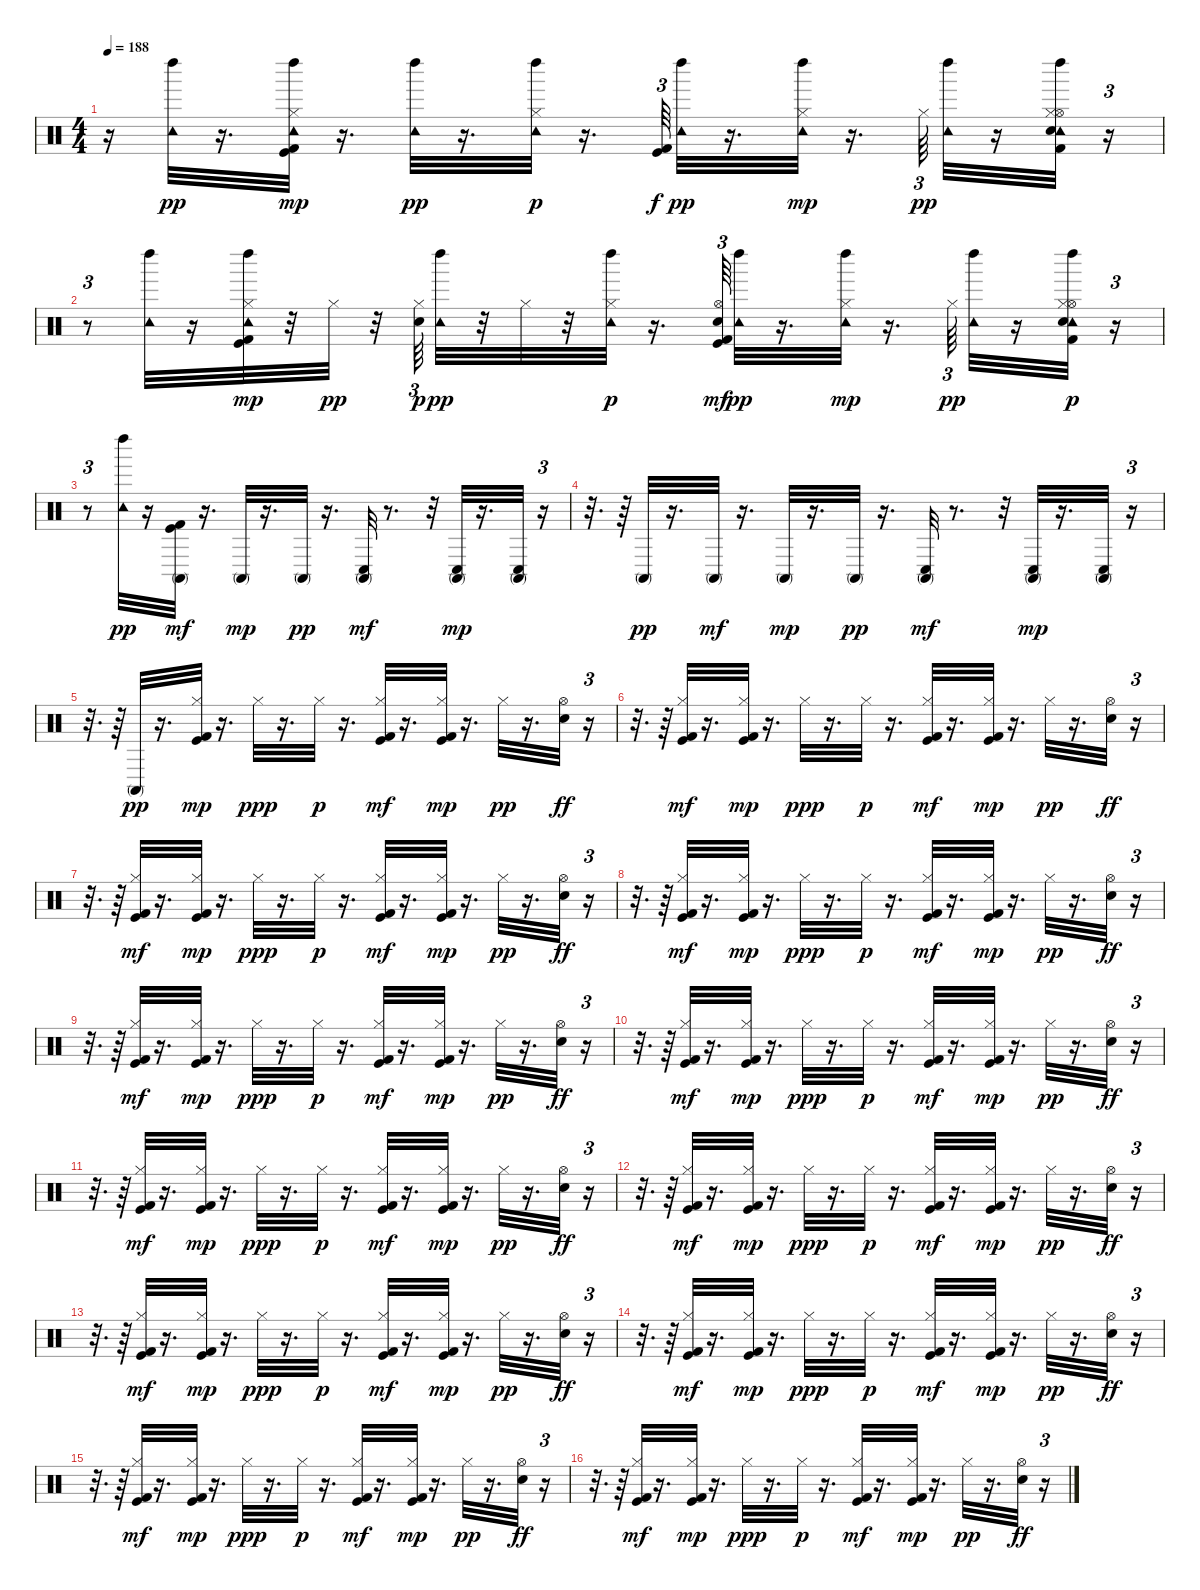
\track "" {instrument percussion}
\staff {score}
\articulation defaults
\ts (4 4)
\tempo 188
\clef neutral
\ks c
r.16{dy p} ("Tambourine (hit)" "Left Maraca (hit)").32{dy pp} r.16{d} ("Kick (hit) 2" "Hi-Hat (closed)" "Tambourine (hit)" "Left Maraca (hit)" "Kick (hit)").32{dy mp} r.16{d} ("Tambourine (hit)" "Left Maraca (hit)").32{dy pp} r.16{d} ("Hi-Hat (closed)" "Tambourine (hit)" "Left Maraca (hit)").32{dy p} r.16{d} ("Kick (hit) 2" "Kick (hit)").64{tu (3 2) dy f} ("Tambourine (hit)" "Left Maraca (hit)").32{dy pp} r.16{d} ("Hi-Hat (closed)" "Tambourine (hit)" "Left Maraca (hit)").32{dy mp} r.16{d} "Hi-Hat (closed)".64{tu (3 2) dy pp} ("Tambourine (hit)" "Left Maraca (hit)").32 r.16 ("Kick (hit) 2" "Hi-Hat (open)" "Tambourine (hit)" "Left Maraca (hit)" "Electric Snare (hit)" "Hi-Hat (closed)").32 r.16{tu (3 2)} |
r.8{tu (3 2)} ("Tambourine (hit)" "Left Maraca (hit)").32 r.16 ("Kick (hit) 2" "Hi-Hat (closed)" "Tambourine (hit)" "Left Maraca (hit)" "Kick (hit)").32{dy mp} r.32 "Hi-Hat (closed)".32{dy pp} r.32 ("Electric Snare (hit)" "Hi-Hat (closed)").64{tu (3 2) dy p} ("Tambourine (hit)" "Left Maraca (hit)").32{dy pp} r.32 "Hi-Hat (closed)".32 r.32 ("Hi-Hat (closed)" "Tambourine (hit)" "Left Maraca (hit)").32{dy p} r.16{d} ("Kick (hit) 2" "Hi-Hat (open)" "Electric Snare (hit)" "Kick (hit)").64{tu (3 2) dy mf} ("Tambourine (hit)" "Left Maraca (hit)").32{dy pp} r.16{d} ("Hi-Hat (closed)" "Tambourine (hit)" "Left Maraca (hit)").32{dy mp} r.16{d} "Hi-Hat (closed)".64{tu (3 2) dy pp} ("Tambourine (hit)" "Left Maraca (hit)").32 r.16 ("Kick (hit) 2" "Hi-Hat (open)" "Tambourine (hit)" "Left Maraca (hit)" "Electric Snare (hit)" "Hi-Hat (closed)").32{dy p} r.16{tu (3 2)} |
r.8{tu (3 2)} ("Tambourine (hit)" "Left Maraca (hit)").32{dy pp} r.16 ("Kick (hit) 2" "Conga high (mute)" "Kick (hit)").32{dy mf} r.16{d} "Conga high (mute)".32{dy mp} r.16{d} "Conga high (mute)".32{dy pp} r.16{d} ("Conga high (mute)" "Conga low (hit)").32{dy mf} r.8{d} r.32 ("Conga high (mute)" "Conga low (hit)").32{dy mp} r.16{d} ("Conga high (mute)" "Conga low (hit)").32 r.16{tu (3 2)} |
r.32{d} r.64 "Conga high (mute)".32{dy pp} r.16{d} "Conga high (mute)".32{dy mf} r.16{d} "Conga high (mute)".32{dy mp} r.16{d} "Conga high (mute)".32{dy pp} r.16{d} ("Conga high (mute)" "Conga low (hit)").32{dy mf} r.8{d} r.32 ("Conga high (mute)" "Conga low (hit)").32{dy mp} r.16{d} ("Conga high (mute)" "Conga low (hit)").32 r.16{tu (3 2)} |
r.32{d} r.64 "Conga high (mute)".32{dy pp} r.16{d} ("Kick (hit) 2" "Hi-Hat (closed)" "Kick (hit)").32{dy mp} r.16{d} "Hi-Hat (closed)".32{dy ppp} r.16{d} "Hi-Hat (closed)".32{dy p} r.16{d} ("Kick (hit) 2" "Hi-Hat (closed)" "Kick (hit)").32{dy mf} r.16{d} ("Kick (hit) 2" "Hi-Hat (closed)" "Kick (hit)").32{dy mp} r.16{d} "Hi-Hat (closed)".32{dy pp} r.16{d} ("Hi-Hat (open)" "Electric Snare (hit)").32{dy ff} r.16{tu (3 2)} |
r.32{d} r.64 ("Kick (hit) 2" "Hi-Hat (closed)" "Kick (hit)").32{dy mf} r.16{d} ("Kick (hit) 2" "Hi-Hat (closed)" "Kick (hit)").32{dy mp} r.16{d} "Hi-Hat (closed)".32{dy ppp} r.16{d} "Hi-Hat (closed)".32{dy p} r.16{d} ("Kick (hit) 2" "Hi-Hat (closed)" "Kick (hit)").32{dy mf} r.16{d} ("Kick (hit) 2" "Hi-Hat (closed)" "Kick (hit)").32{dy mp} r.16{d} "Hi-Hat (closed)".32{dy pp} r.16{d} ("Hi-Hat (open)" "Electric Snare (hit)").32{dy ff} r.16{tu (3 2)} |
r.32{d} r.64 ("Kick (hit) 2" "Hi-Hat (closed)" "Kick (hit)").32{dy mf} r.16{d} ("Kick (hit) 2" "Hi-Hat (closed)" "Kick (hit)").32{dy mp} r.16{d} "Hi-Hat (closed)".32{dy ppp} r.16{d} "Hi-Hat (closed)".32{dy p} r.16{d} ("Kick (hit) 2" "Hi-Hat (closed)" "Kick (hit)").32{dy mf} r.16{d} ("Kick (hit) 2" "Hi-Hat (closed)" "Kick (hit)").32{dy mp} r.16{d} "Hi-Hat (closed)".32{dy pp} r.16{d} ("Hi-Hat (open)" "Electric Snare (hit)").32{dy ff} r.16{tu (3 2)} |
r.32{d} r.64 ("Kick (hit) 2" "Hi-Hat (closed)" "Kick (hit)").32{dy mf} r.16{d} ("Kick (hit) 2" "Hi-Hat (closed)" "Kick (hit)").32{dy mp} r.16{d} "Hi-Hat (closed)".32{dy ppp} r.16{d} "Hi-Hat (closed)".32{dy p} r.16{d} ("Kick (hit) 2" "Hi-Hat (closed)" "Kick (hit)").32{dy mf} r.16{d} ("Kick (hit) 2" "Hi-Hat (closed)" "Kick (hit)").32{dy mp} r.16{d} "Hi-Hat (closed)".32{dy pp} r.16{d} ("Hi-Hat (open)" "Electric Snare (hit)").32{dy ff} r.16{tu (3 2)} |
r.32{d} r.64 ("Kick (hit) 2" "Hi-Hat (closed)" "Kick (hit)").32{dy mf} r.16{d} ("Kick (hit) 2" "Hi-Hat (closed)" "Kick (hit)").32{dy mp} r.16{d} "Hi-Hat (closed)".32{dy ppp} r.16{d} "Hi-Hat (closed)".32{dy p} r.16{d} ("Kick (hit) 2" "Hi-Hat (closed)" "Kick (hit)").32{dy mf} r.16{d} ("Kick (hit) 2" "Hi-Hat (closed)" "Kick (hit)").32{dy mp} r.16{d} "Hi-Hat (closed)".32{dy pp} r.16{d} ("Hi-Hat (open)" "Electric Snare (hit)").32{dy ff} r.16{tu (3 2)} |
r.32{d} r.64 ("Kick (hit) 2" "Hi-Hat (closed)" "Kick (hit)").32{dy mf} r.16{d} ("Kick (hit) 2" "Hi-Hat (closed)" "Kick (hit)").32{dy mp} r.16{d} "Hi-Hat (closed)".32{dy ppp} r.16{d} "Hi-Hat (closed)".32{dy p} r.16{d} ("Kick (hit) 2" "Hi-Hat (closed)" "Kick (hit)").32{dy mf} r.16{d} ("Kick (hit) 2" "Hi-Hat (closed)" "Kick (hit)").32{dy mp} r.16{d} "Hi-Hat (closed)".32{dy pp} r.16{d} ("Hi-Hat (open)" "Electric Snare (hit)").32{dy ff} r.16{tu (3 2)} |
r.32{d} r.64 ("Kick (hit) 2" "Hi-Hat (closed)" "Kick (hit)").32{dy mf} r.16{d} ("Kick (hit) 2" "Hi-Hat (closed)" "Kick (hit)").32{dy mp} r.16{d} "Hi-Hat (closed)".32{dy ppp} r.16{d} "Hi-Hat (closed)".32{dy p} r.16{d} ("Kick (hit) 2" "Hi-Hat (closed)" "Kick (hit)").32{dy mf} r.16{d} ("Kick (hit) 2" "Hi-Hat (closed)" "Kick (hit)").32{dy mp} r.16{d} "Hi-Hat (closed)".32{dy pp} r.16{d} ("Hi-Hat (open)" "Electric Snare (hit)").32{dy ff} r.16{tu (3 2)} |
r.32{d} r.64 ("Kick (hit) 2" "Hi-Hat (closed)" "Kick (hit)").32{dy mf} r.16{d} ("Kick (hit) 2" "Hi-Hat (closed)" "Kick (hit)").32{dy mp} r.16{d} "Hi-Hat (closed)".32{dy ppp} r.16{d} "Hi-Hat (closed)".32{dy p} r.16{d} ("Kick (hit) 2" "Hi-Hat (closed)" "Kick (hit)").32{dy mf} r.16{d} ("Kick (hit) 2" "Hi-Hat (closed)" "Kick (hit)").32{dy mp} r.16{d} "Hi-Hat (closed)".32{dy pp} r.16{d} ("Hi-Hat (open)" "Electric Snare (hit)").32{dy ff} r.16{tu (3 2)} |
r.32{d} r.64 ("Kick (hit) 2" "Hi-Hat (closed)" "Kick (hit)").32{dy mf} r.16{d} ("Kick (hit) 2" "Hi-Hat (closed)" "Kick (hit)").32{dy mp} r.16{d} "Hi-Hat (closed)".32{dy ppp} r.16{d} "Hi-Hat (closed)".32{dy p} r.16{d} ("Kick (hit) 2" "Hi-Hat (closed)" "Kick (hit)").32{dy mf} r.16{d} ("Kick (hit) 2" "Hi-Hat (closed)" "Kick (hit)").32{dy mp} r.16{d} "Hi-Hat (closed)".32{dy pp} r.16{d} ("Hi-Hat (open)" "Electric Snare (hit)").32{dy ff} r.16{tu (3 2)} |
r.32{d} r.64 ("Kick (hit) 2" "Hi-Hat (closed)" "Kick (hit)").32{dy mf} r.16{d} ("Kick (hit) 2" "Hi-Hat (closed)" "Kick (hit)").32{dy mp} r.16{d} "Hi-Hat (closed)".32{dy ppp} r.16{d} "Hi-Hat (closed)".32{dy p} r.16{d} ("Kick (hit) 2" "Hi-Hat (closed)" "Kick (hit)").32{dy mf} r.16{d} ("Kick (hit) 2" "Hi-Hat (closed)" "Kick (hit)").32{dy mp} r.16{d} "Hi-Hat (closed)".32{dy pp} r.16{d} ("Hi-Hat (open)" "Electric Snare (hit)").32{dy ff} r.16{tu (3 2)} |
r.32{d} r.64 ("Kick (hit) 2" "Hi-Hat (closed)" "Kick (hit)").32{dy mf} r.16{d} ("Kick (hit) 2" "Hi-Hat (closed)" "Kick (hit)").32{dy mp} r.16{d} "Hi-Hat (closed)".32{dy ppp} r.16{d} "Hi-Hat (closed)".32{dy p} r.16{d} ("Kick (hit) 2" "Hi-Hat (closed)" "Kick (hit)").32{dy mf} r.16{d} ("Kick (hit) 2" "Hi-Hat (closed)" "Kick (hit)").32{dy mp} r.16{d} "Hi-Hat (closed)".32{dy pp} r.16{d} ("Hi-Hat (open)" "Electric Snare (hit)").32{dy ff} r.16{tu (3 2)} |
r.32{d} r.64 ("Kick (hit) 2" "Hi-Hat (closed)" "Kick (hit)").32{dy mf} r.16{d} ("Kick (hit) 2" "Hi-Hat (closed)" "Kick (hit)").32{dy mp} r.16{d} "Hi-Hat (closed)".32{dy ppp} r.16{d} "Hi-Hat (closed)".32{dy p} r.16{d} ("Kick (hit) 2" "Hi-Hat (closed)" "Kick (hit)").32{dy mf} r.16{d} ("Kick (hit) 2" "Hi-Hat (closed)" "Kick (hit)").32{dy mp} r.16{d} "Hi-Hat (closed)".32{dy pp} r.16{d} ("Hi-Hat (open)" "Electric Snare (hit)").32{dy ff} r.16{tu (3 2)}
